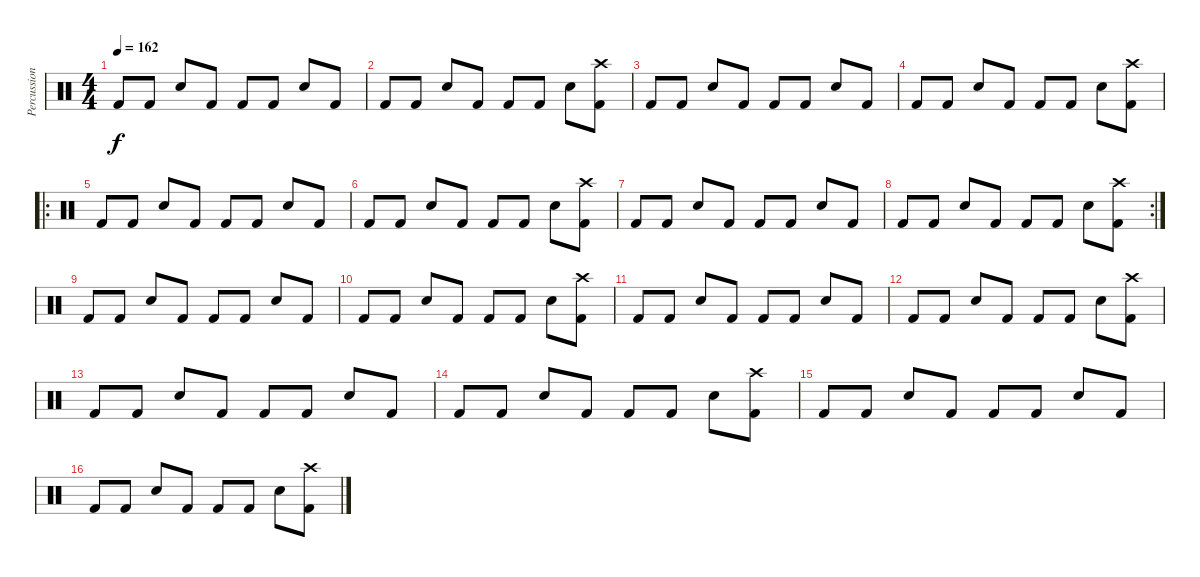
\track ("Percussion" "Percussion") {instrument percussion}
\staff {score}
\articulation defaults
\ts (4 4)
\tempo 162
\clef neutral
\ks c "Kick (hit) 2".8{dy f} "Kick (hit) 2".8 "Snare (hit) 2".8 "Kick (hit) 2".8 "Kick (hit) 2".8 "Kick (hit) 2".8 "Snare (hit) 2".8 "Kick (hit) 2".8
|
"Kick (hit) 2".8 "Kick (hit) 2".8 "Snare (hit) 2".8 "Kick (hit) 2".8 "Kick (hit) 2".8 "Kick (hit) 2".8 "Snare (hit) 2".8 ("Crash high (hit)" "Kick (hit) 2").8 |
"Kick (hit) 2".8 "Kick (hit) 2".8 "Snare (hit) 2".8 "Kick (hit) 2".8 "Kick (hit) 2".8 "Kick (hit) 2".8 "Snare (hit) 2".8 "Kick (hit) 2".8 |
"Kick (hit) 2".8 "Kick (hit) 2".8 "Snare (hit) 2".8 "Kick (hit) 2".8 "Kick (hit) 2".8 "Kick (hit) 2".8 "Snare (hit) 2".8 ("Crash high (hit)" "Kick (hit) 2").8 |
\ro "Kick (hit) 2".8 "Kick (hit) 2".8 "Snare (hit) 2".8 "Kick (hit) 2".8 "Kick (hit) 2".8 "Kick (hit) 2".8 "Snare (hit) 2".8 "Kick (hit) 2".8
|
"Kick (hit) 2".8 "Kick (hit) 2".8 "Snare (hit) 2".8 "Kick (hit) 2".8 "Kick (hit) 2".8 "Kick (hit) 2".8 "Snare (hit) 2".8 ("Crash high (hit)" "Kick (hit) 2").8 |
"Kick (hit) 2".8 "Kick (hit) 2".8 "Snare (hit) 2".8 "Kick (hit) 2".8 "Kick (hit) 2".8 "Kick (hit) 2".8 "Snare (hit) 2".8 "Kick (hit) 2".8 |
\rc 2 "Kick (hit) 2".8 "Kick (hit) 2".8 "Snare (hit) 2".8 "Kick (hit) 2".8 "Kick (hit) 2".8 "Kick (hit) 2".8 "Snare (hit) 2".8
("Crash high (hit)" "Kick (hit) 2").8 |
"Kick (hit) 2".8 "Kick (hit) 2".8 "Snare (hit) 2".8 "Kick (hit) 2".8 "Kick (hit) 2".8 "Kick (hit) 2".8 "Snare (hit) 2".8 "Kick (hit) 2".8 |
"Kick (hit) 2".8 "Kick (hit) 2".8 "Snare (hit) 2".8 "Kick (hit) 2".8 "Kick (hit) 2".8 "Kick (hit) 2".8 "Snare (hit) 2".8 ("Crash high (hit)" "Kick (hit) 2").8 |
"Kick (hit) 2".8 "Kick (hit) 2".8 "Snare (hit) 2".8 "Kick (hit) 2".8 "Kick (hit) 2".8 "Kick (hit) 2".8 "Snare (hit) 2".8 "Kick (hit) 2".8 |
"Kick (hit) 2".8 "Kick (hit) 2".8 "Snare (hit) 2".8 "Kick (hit) 2".8 "Kick (hit) 2".8 "Kick (hit) 2".8 "Snare (hit) 2".8 ("Crash high (hit)" "Kick (hit) 2").8 |
"Kick (hit) 2".8 "Kick (hit) 2".8 "Snare (hit) 2".8 "Kick (hit) 2".8 "Kick (hit) 2".8 "Kick (hit) 2".8 "Snare (hit) 2".8 "Kick (hit) 2".8 |
"Kick (hit) 2".8 "Kick (hit) 2".8 "Snare (hit) 2".8 "Kick (hit) 2".8 "Kick (hit) 2".8 "Kick (hit) 2".8 "Snare (hit) 2".8 ("Crash high (hit)" "Kick (hit) 2").8 |
"Kick (hit) 2".8 "Kick (hit) 2".8 "Snare (hit) 2".8 "Kick (hit) 2".8 "Kick (hit) 2".8 "Kick (hit) 2".8 "Snare (hit) 2".8 "Kick (hit) 2".8 |
"Kick (hit) 2".8 "Kick (hit) 2".8 "Snare (hit) 2".8 "Kick (hit) 2".8 "Kick (hit) 2".8 "Kick (hit) 2".8 "Snare (hit) 2".8 ("Crash high (hit)" "Kick (hit) 2").8
